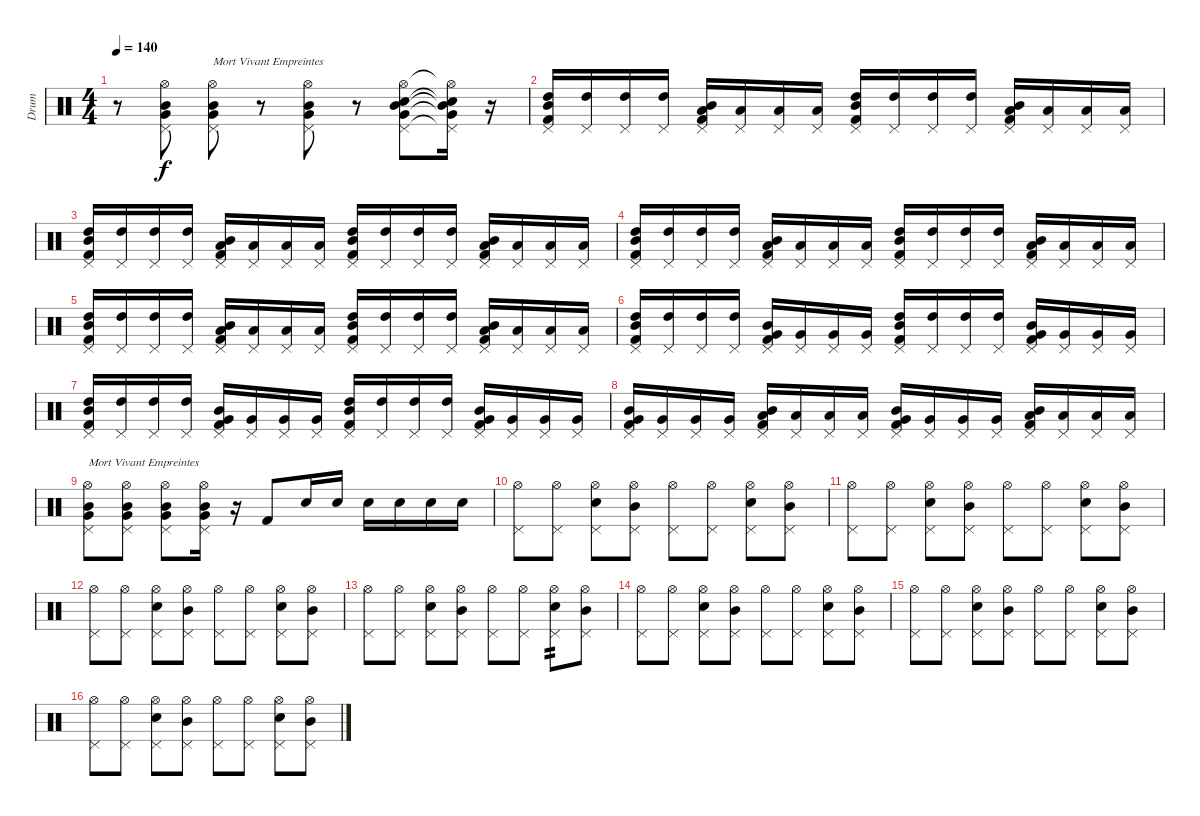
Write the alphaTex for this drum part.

\track ("Drum" "Drum") {instrument percussion}
\staff {score}
\articulation defaults
\ts (4 4)
\tempo 140
\clef neutral
\ks c
r.8{dy f} ("Hi-Hat (open)" "Very Low Tom (hit)" "Mid Tom (hit)" "Pedal Hi-Hat (hit)").8 ("Hi-Hat (open)" "Very Low Tom (hit)" "Mid Tom (hit)" "Pedal Hi-Hat (hit)").8{txt "Mort Vivant Empreintes"} r.8 ("Hi-Hat (open)" "Very Low Tom (hit)" "Mid Tom (hit)" "Pedal Hi-Hat (hit)").8 r.8 ("Hi-Hat (open)" "Very Low Tom (hit)" "Mid Tom (hit)" "Snare (hit) 2" "Pedal Hi-Hat (hit)").8 ("Hi-Hat (open)"{t} "Very Low Tom (hit)"{t} "Mid Tom (hit)"{t} "Snare (hit) 2"{t} "Pedal Hi-Hat (hit)"{t}).16 r.16 |
("High Tom (hit)" "Mid Tom (hit)" "Kick (hit) 2" "Pedal Hi-Hat (hit)").16 ("High Tom (hit)" "Pedal Hi-Hat (hit)").16 ("High Tom (hit)" "Pedal Hi-Hat (hit)").16 ("High Tom (hit)" "Pedal Hi-Hat (hit)").16 ("Low Tom (hit)" "Mid Tom (hit)" "Kick (hit) 2" "Pedal Hi-Hat (hit)").16 ("Low Tom (hit)" "Pedal Hi-Hat (hit)").16 ("Low Tom (hit)" "Pedal Hi-Hat (hit)").16 ("Low Tom (hit)" "Pedal Hi-Hat (hit)").16 ("High Tom (hit)" "Mid Tom (hit)" "Kick (hit) 2" "Pedal Hi-Hat (hit)").16 ("High Tom (hit)" "Pedal Hi-Hat (hit)").16 ("High Tom (hit)" "Pedal Hi-Hat (hit)").16 ("High Tom (hit)" "Pedal Hi-Hat (hit)").16 ("Low Tom (hit)" "Mid Tom (hit)" "Kick (hit) 2" "Pedal Hi-Hat (hit)").16 ("Low Tom (hit)" "Pedal Hi-Hat (hit)").16 ("Low Tom (hit)" "Pedal Hi-Hat (hit)").16 ("Low Tom (hit)" "Pedal Hi-Hat (hit)").16 |
("High Tom (hit)" "Mid Tom (hit)" "Kick (hit) 2" "Pedal Hi-Hat (hit)").16 ("High Tom (hit)" "Pedal Hi-Hat (hit)").16 ("High Tom (hit)" "Pedal Hi-Hat (hit)").16 ("High Tom (hit)" "Pedal Hi-Hat (hit)").16 ("Low Tom (hit)" "Mid Tom (hit)" "Kick (hit) 2" "Pedal Hi-Hat (hit)").16 ("Low Tom (hit)" "Pedal Hi-Hat (hit)").16 ("Low Tom (hit)" "Pedal Hi-Hat (hit)").16 ("Low Tom (hit)" "Pedal Hi-Hat (hit)").16 ("High Tom (hit)" "Mid Tom (hit)" "Kick (hit) 2" "Pedal Hi-Hat (hit)").16 ("High Tom (hit)" "Pedal Hi-Hat (hit)").16 ("High Tom (hit)" "Pedal Hi-Hat (hit)").16 ("High Tom (hit)" "Pedal Hi-Hat (hit)").16 ("Low Tom (hit)" "Mid Tom (hit)" "Kick (hit) 2" "Pedal Hi-Hat (hit)").16 ("Low Tom (hit)" "Pedal Hi-Hat (hit)").16 ("Low Tom (hit)" "Pedal Hi-Hat (hit)").16 ("Low Tom (hit)" "Pedal Hi-Hat (hit)").16 |
("High Tom (hit)" "Mid Tom (hit)" "Kick (hit) 2" "Pedal Hi-Hat (hit)").16 ("High Tom (hit)" "Pedal Hi-Hat (hit)").16 ("High Tom (hit)" "Pedal Hi-Hat (hit)").16 ("High Tom (hit)" "Pedal Hi-Hat (hit)").16 ("Low Tom (hit)" "Mid Tom (hit)" "Kick (hit) 2" "Pedal Hi-Hat (hit)").16 ("Low Tom (hit)" "Pedal Hi-Hat (hit)").16 ("Low Tom (hit)" "Pedal Hi-Hat (hit)").16 ("Low Tom (hit)" "Pedal Hi-Hat (hit)").16 ("High Tom (hit)" "Mid Tom (hit)" "Kick (hit) 2" "Pedal Hi-Hat (hit)").16 ("High Tom (hit)" "Pedal Hi-Hat (hit)").16 ("High Tom (hit)" "Pedal Hi-Hat (hit)").16 ("High Tom (hit)" "Pedal Hi-Hat (hit)").16 ("Low Tom (hit)" "Mid Tom (hit)" "Kick (hit) 2" "Pedal Hi-Hat (hit)").16 ("Low Tom (hit)" "Pedal Hi-Hat (hit)").16 ("Low Tom (hit)" "Pedal Hi-Hat (hit)").16 ("Low Tom (hit)" "Pedal Hi-Hat (hit)").16 |
("High Tom (hit)" "Mid Tom (hit)" "Kick (hit) 2" "Pedal Hi-Hat (hit)").16 ("High Tom (hit)" "Pedal Hi-Hat (hit)").16 ("High Tom (hit)" "Pedal Hi-Hat (hit)").16 ("High Tom (hit)" "Pedal Hi-Hat (hit)").16 ("Low Tom (hit)" "Mid Tom (hit)" "Kick (hit) 2" "Pedal Hi-Hat (hit)").16 ("Low Tom (hit)" "Pedal Hi-Hat (hit)").16 ("Low Tom (hit)" "Pedal Hi-Hat (hit)").16 ("Low Tom (hit)" "Pedal Hi-Hat (hit)").16 ("High Tom (hit)" "Mid Tom (hit)" "Kick (hit) 2" "Pedal Hi-Hat (hit)").16 ("High Tom (hit)" "Pedal Hi-Hat (hit)").16 ("High Tom (hit)" "Pedal Hi-Hat (hit)").16 ("High Tom (hit)" "Pedal Hi-Hat (hit)").16 ("Low Tom (hit)" "Mid Tom (hit)" "Kick (hit) 2" "Pedal Hi-Hat (hit)").16 ("Low Tom (hit)" "Pedal Hi-Hat (hit)").16 ("Low Tom (hit)" "Pedal Hi-Hat (hit)").16 ("Low Tom (hit)" "Pedal Hi-Hat (hit)").16 |
("High Tom (hit)" "Mid Tom (hit)" "Kick (hit) 2" "Pedal Hi-Hat (hit)").16 ("High Tom (hit)" "Pedal Hi-Hat (hit)").16 ("High Tom (hit)" "Pedal Hi-Hat (hit)").16 ("High Tom (hit)" "Pedal Hi-Hat (hit)").16 ("Very Low Tom (hit)" "Mid Tom (hit)" "Kick (hit) 2" "Pedal Hi-Hat (hit)").16 ("Very Low Tom (hit)" "Pedal Hi-Hat (hit)").16 ("Very Low Tom (hit)" "Pedal Hi-Hat (hit)").16 ("Very Low Tom (hit)" "Pedal Hi-Hat (hit)").16 ("High Tom (hit)" "Mid Tom (hit)" "Kick (hit) 2" "Pedal Hi-Hat (hit)").16 ("High Tom (hit)" "Pedal Hi-Hat (hit)").16 ("High Tom (hit)" "Pedal Hi-Hat (hit)").16 ("High Tom (hit)" "Pedal Hi-Hat (hit)").16 ("Very Low Tom (hit)" "Mid Tom (hit)" "Kick (hit) 2" "Pedal Hi-Hat (hit)").16 ("Very Low Tom (hit)" "Pedal Hi-Hat (hit)").16 ("Very Low Tom (hit)" "Pedal Hi-Hat (hit)").16 ("Very Low Tom (hit)" "Pedal Hi-Hat (hit)").16 |
("High Tom (hit)" "Mid Tom (hit)" "Kick (hit) 2" "Pedal Hi-Hat (hit)").16 ("High Tom (hit)" "Pedal Hi-Hat (hit)").16 ("High Tom (hit)" "Pedal Hi-Hat (hit)").16 ("High Tom (hit)" "Pedal Hi-Hat (hit)").16 ("Very Low Tom (hit)" "Mid Tom (hit)" "Kick (hit) 2" "Pedal Hi-Hat (hit)").16 ("Very Low Tom (hit)" "Pedal Hi-Hat (hit)").16 ("Very Low Tom (hit)" "Pedal Hi-Hat (hit)").16 ("Very Low Tom (hit)" "Pedal Hi-Hat (hit)").16 ("High Tom (hit)" "Mid Tom (hit)" "Kick (hit) 2" "Pedal Hi-Hat (hit)").16 ("High Tom (hit)" "Pedal Hi-Hat (hit)").16 ("High Tom (hit)" "Pedal Hi-Hat (hit)").16 ("High Tom (hit)" "Pedal Hi-Hat (hit)").16 ("Very Low Tom (hit)" "Mid Tom (hit)" "Kick (hit) 2" "Pedal Hi-Hat (hit)").16 ("Very Low Tom (hit)" "Pedal Hi-Hat (hit)").16 ("Very Low Tom (hit)" "Pedal Hi-Hat (hit)").16 ("Very Low Tom (hit)" "Pedal Hi-Hat (hit)").16 |
("Very Low Tom (hit)" "Mid Tom (hit)" "Kick (hit) 2" "Pedal Hi-Hat (hit)").16 ("Very Low Tom (hit)" "Pedal Hi-Hat (hit)").16 ("Very Low Tom (hit)" "Pedal Hi-Hat (hit)").16 ("Very Low Tom (hit)" "Pedal Hi-Hat (hit)").16 ("Low Tom (hit)" "Mid Tom (hit)" "Kick (hit) 2" "Pedal Hi-Hat (hit)").16 ("Low Tom (hit)" "Pedal Hi-Hat (hit)").16 ("Low Tom (hit)" "Pedal Hi-Hat (hit)").16 ("Low Tom (hit)" "Pedal Hi-Hat (hit)").16 ("Very Low Tom (hit)" "Mid Tom (hit)" "Kick (hit) 2" "Pedal Hi-Hat (hit)").16 ("Very Low Tom (hit)" "Pedal Hi-Hat (hit)").16 ("Very Low Tom (hit)" "Pedal Hi-Hat (hit)").16 ("Very Low Tom (hit)" "Pedal Hi-Hat (hit)").16 ("Low Tom (hit)" "Mid Tom (hit)" "Kick (hit) 2" "Pedal Hi-Hat (hit)").16 ("Low Tom (hit)" "Pedal Hi-Hat (hit)").16 ("Low Tom (hit)" "Pedal Hi-Hat (hit)").16 ("Low Tom (hit)" "Pedal Hi-Hat (hit)").16 |
("Hi-Hat (open)" "Very Low Tom (hit)" "Mid Tom (hit)" "Pedal Hi-Hat (hit)").8{txt "Mort Vivant Empreintes"} ("Hi-Hat (open)" "Very Low Tom (hit)" "Mid Tom (hit)" "Pedal Hi-Hat (hit)").8 ("Hi-Hat (open)" "Very Low Tom (hit)" "Mid Tom (hit)" "Pedal Hi-Hat (hit)").8 ("Hi-Hat (open)" "Very Low Tom (hit)" "Mid Tom (hit)" "Pedal Hi-Hat (hit)").16 r.16 "Kick (hit) 2".8 "Snare (hit) 2".16 "Snare (hit) 2".16 "Snare (hit) 2".16 "Snare (hit) 2".16 "Snare (hit) 2".16 "Snare (hit) 2".16 |
("Hi-Hat (open)" "Pedal Hi-Hat (hit)").8 ("Hi-Hat (open)" "Pedal Hi-Hat (hit)").8 ("Hi-Hat (open)" "Snare (hit) 2" "Pedal Hi-Hat (hit)").8 ("Hi-Hat (open)" "Mid Tom (hit)" "Pedal Hi-Hat (hit)").8 ("Hi-Hat (open)" "Pedal Hi-Hat (hit)").8 ("Hi-Hat (open)" "Pedal Hi-Hat (hit)").8 ("Hi-Hat (open)" "Snare (hit) 2" "Pedal Hi-Hat (hit)").8 ("Hi-Hat (open)" "Mid Tom (hit)" "Pedal Hi-Hat (hit)").8 |
("Hi-Hat (open)" "Pedal Hi-Hat (hit)").8 ("Hi-Hat (open)" "Pedal Hi-Hat (hit)").8 ("Hi-Hat (open)" "Snare (hit) 2" "Pedal Hi-Hat (hit)").8 ("Hi-Hat (open)" "Mid Tom (hit)" "Pedal Hi-Hat (hit)").8 ("Hi-Hat (open)" "Pedal Hi-Hat (hit)").8 ("Hi-Hat (open)" "Pedal Hi-Hat (hit)").8 ("Hi-Hat (open)" "Snare (hit) 2" "Pedal Hi-Hat (hit)").8 ("Hi-Hat (open)" "Mid Tom (hit)" "Pedal Hi-Hat (hit)").8 |
("Hi-Hat (open)" "Pedal Hi-Hat (hit)").8 ("Hi-Hat (open)" "Pedal Hi-Hat (hit)").8 ("Hi-Hat (open)" "Snare (hit) 2" "Pedal Hi-Hat (hit)").8 ("Hi-Hat (open)" "Mid Tom (hit)" "Pedal Hi-Hat (hit)").8 ("Hi-Hat (open)" "Pedal Hi-Hat (hit)").8 ("Hi-Hat (open)" "Pedal Hi-Hat (hit)").8 ("Hi-Hat (open)" "Snare (hit) 2" "Pedal Hi-Hat (hit)").8 ("Hi-Hat (open)" "Mid Tom (hit)" "Pedal Hi-Hat (hit)").8 |
("Hi-Hat (open)" "Pedal Hi-Hat (hit)").8 ("Hi-Hat (open)" "Pedal Hi-Hat (hit)").8 ("Hi-Hat (open)" "Snare (hit) 2" "Pedal Hi-Hat (hit)").8 ("Hi-Hat (open)" "Mid Tom (hit)" "Pedal Hi-Hat (hit)").8 ("Hi-Hat (open)" "Pedal Hi-Hat (hit)").8 ("Hi-Hat (open)" "Pedal Hi-Hat (hit)").8 ("Hi-Hat (open)" "Snare (hit) 2" "Pedal Hi-Hat (hit)").8{tp 2} ("Hi-Hat (open)" "Mid Tom (hit)" "Pedal Hi-Hat (hit)").8 |
("Hi-Hat (open)" "Pedal Hi-Hat (hit)").8 ("Hi-Hat (open)" "Pedal Hi-Hat (hit)").8 ("Hi-Hat (open)" "Snare (hit) 2" "Pedal Hi-Hat (hit)").8 ("Hi-Hat (open)" "Mid Tom (hit)" "Pedal Hi-Hat (hit)").8 ("Hi-Hat (open)" "Pedal Hi-Hat (hit)").8 ("Hi-Hat (open)" "Pedal Hi-Hat (hit)").8 ("Hi-Hat (open)" "Snare (hit) 2" "Pedal Hi-Hat (hit)").8 ("Hi-Hat (open)" "Mid Tom (hit)" "Pedal Hi-Hat (hit)").8 |
("Hi-Hat (open)" "Pedal Hi-Hat (hit)").8 ("Hi-Hat (open)" "Pedal Hi-Hat (hit)").8 ("Hi-Hat (open)" "Snare (hit) 2" "Pedal Hi-Hat (hit)").8 ("Hi-Hat (open)" "Mid Tom (hit)" "Pedal Hi-Hat (hit)").8 ("Hi-Hat (open)" "Pedal Hi-Hat (hit)").8 ("Hi-Hat (open)" "Pedal Hi-Hat (hit)").8 ("Hi-Hat (open)" "Snare (hit) 2" "Pedal Hi-Hat (hit)").8 ("Hi-Hat (open)" "Mid Tom (hit)" "Pedal Hi-Hat (hit)").8 |
("Hi-Hat (open)" "Pedal Hi-Hat (hit)").8 ("Hi-Hat (open)" "Pedal Hi-Hat (hit)").8 ("Hi-Hat (open)" "Snare (hit) 2" "Pedal Hi-Hat (hit)").8 ("Hi-Hat (open)" "Mid Tom (hit)" "Pedal Hi-Hat (hit)").8 ("Hi-Hat (open)" "Pedal Hi-Hat (hit)").8 ("Hi-Hat (open)" "Pedal Hi-Hat (hit)").8 ("Hi-Hat (open)" "Snare (hit) 2" "Pedal Hi-Hat (hit)").8 ("Hi-Hat (open)" "Mid Tom (hit)" "Pedal Hi-Hat (hit)").8
